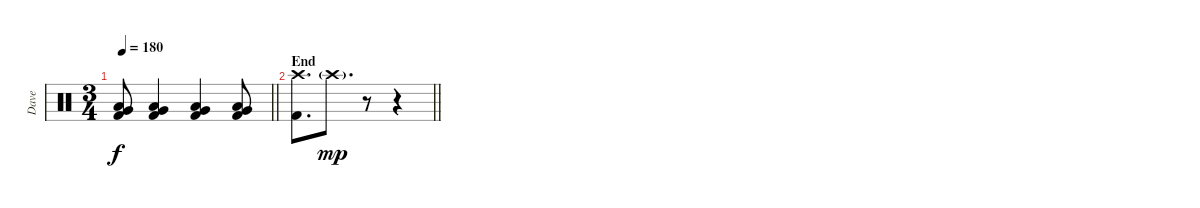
\track ("Dave" "Dave") {instrument percussion}
\staff {score}
\articulation defaults
\ts (3 4)
\tempo 180
\clef neutral
\barLineRight lightlight
\ks c
("Kick (hit) 2" "Very Low Tom (hit)" "Low Tom (hit)").8{dy f} ("Kick (hit) 2" "Very Low Tom (hit)" "Low Tom (hit)").4 ("Kick (hit) 2" "Very Low Tom (hit)" "Low Tom (hit)").4 ("Kick (hit) 2" "Very Low Tom (hit)" "Low Tom (hit)").8 |
\section ("" "End")
\barLineRight lightlight
("Kick (hit) 2" "Crash high (hit)").8{d} "Crash high (hit)"{g}.8{d dy mp} r.8 r.4
